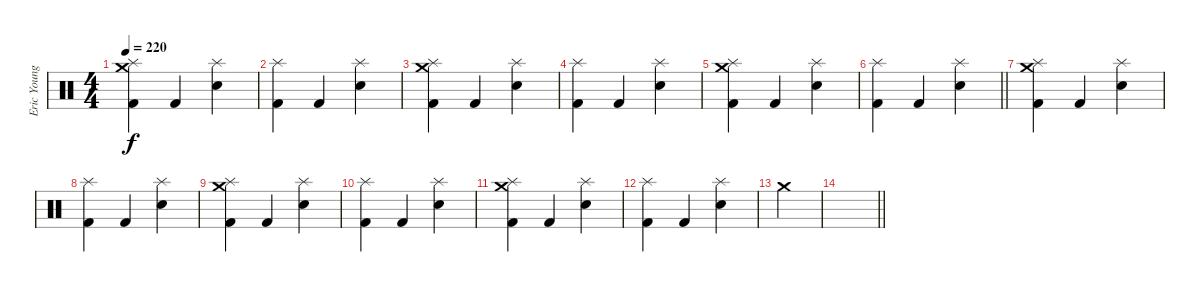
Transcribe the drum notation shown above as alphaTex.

\track ("Eric Young (Drums)" "Eric Young") {instrument percussion}
\staff {score}
\articulation defaults
\ts (4 4)
\tempo 220
\clef neutral
\ks c
("Splash (hit)" "Kick (hit) 2" "Crash medium (hit)").4{dy f} "Kick (hit) 2".4 ("Splash (hit)" "Snare (hit) 2").4 |
("Splash (hit)" "Kick (hit) 2").4 "Kick (hit) 2".4 ("Splash (hit)" "Snare (hit) 2").4 |
("Splash (hit)" "Kick (hit) 2" "Crash medium (hit)").4 "Kick (hit) 2".4 ("Splash (hit)" "Snare (hit) 2").4 |
("Splash (hit)" "Kick (hit) 2").4 "Kick (hit) 2".4 ("Splash (hit)" "Snare (hit) 2").4 |
("Splash (hit)" "Kick (hit) 2" "Crash medium (hit)").4 "Kick (hit) 2".4 ("Splash (hit)" "Snare (hit) 2").4 |
\barLineRight lightlight
("Splash (hit)" "Kick (hit) 2").4 "Kick (hit) 2".4 ("Splash (hit)" "Snare (hit) 2").4 |
("Splash (hit)" "Kick (hit) 2" "Crash medium (hit)").4 "Kick (hit) 2".4 ("Splash (hit)" "Snare (hit) 2").4 |
("Splash (hit)" "Kick (hit) 2").4 "Kick (hit) 2".4 ("Splash (hit)" "Snare (hit) 2").4 |
("Splash (hit)" "Kick (hit) 2" "Crash medium (hit)").4 "Kick (hit) 2".4 ("Splash (hit)" "Snare (hit) 2").4 |
("Splash (hit)" "Kick (hit) 2").4 "Kick (hit) 2".4 ("Splash (hit)" "Snare (hit) 2").4 |
("Splash (hit)" "Kick (hit) 2" "Crash medium (hit)").4 "Kick (hit) 2".4 ("Splash (hit)" "Snare (hit) 2").4 |
("Splash (hit)" "Kick (hit) 2").4 "Kick (hit) 2".4 ("Splash (hit)" "Snare (hit) 2").4 |
"Crash medium (hit)".4 |
\barLineRight lightlight
